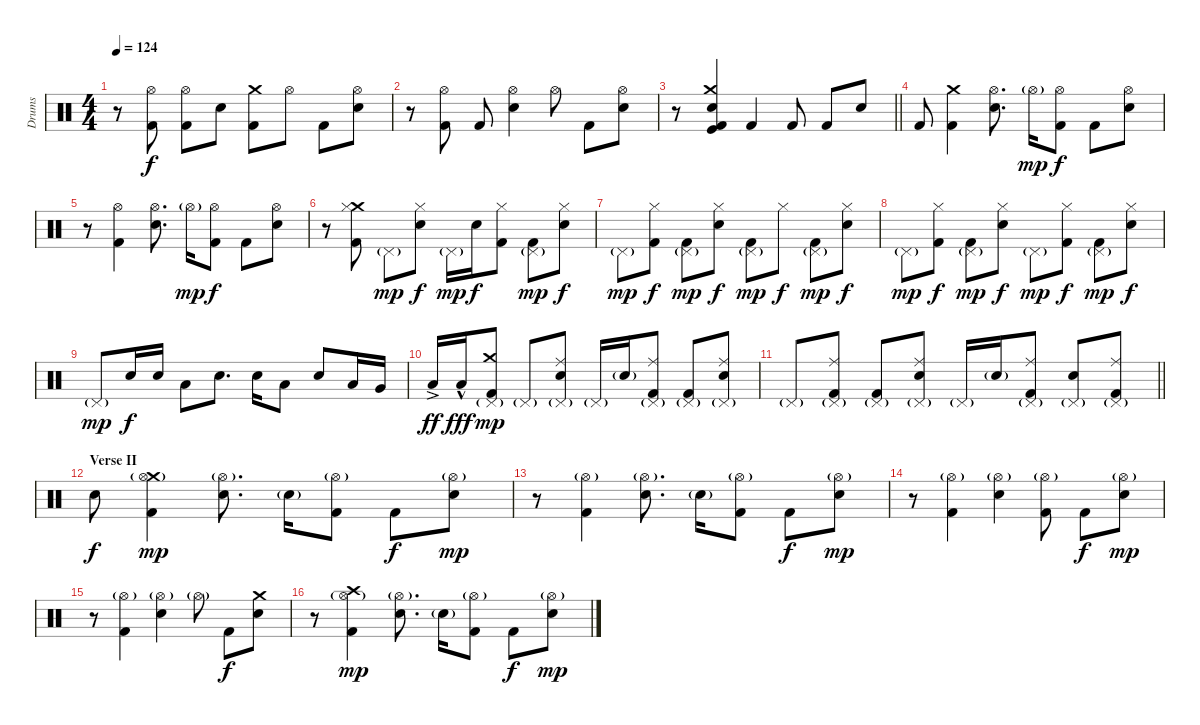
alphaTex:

\track ("Drums" "Drums") {instrument percussion}
\staff {score}
\articulation defaults
\ts (4 4)
\tempo 124
\clef neutral
\ks c
r.8{dy f} ("Hi-Hat (open)" "Kick (hit) 2").8 ("Hi-Hat (open)" "Kick (hit) 2").8 "Electric Snare (hit)".8 ("Crash medium (hit)" "Kick (hit) 2").8 "Hi-Hat (open)".8 "Kick (hit) 2".8 ("Electric Snare (hit)" "Hi-Hat (open)").8 |
r.8 ("Hi-Hat (open)" "Kick (hit) 2").8 "Kick (hit) 2".8 ("Electric Snare (hit)" "Hi-Hat (open)").4 "Hi-Hat (open)".8 "Kick (hit) 2".8 ("Electric Snare (hit)" "Hi-Hat (open)").8 |
\barLineRight lightlight
r.8 ("Kick (hit)" "Crash medium (hit)" "Kick (hit) 2" "Electric Snare (hit)").4 "Kick (hit) 2".4 "Kick (hit) 2".8 "Kick (hit) 2".8 "Electric Snare (hit)".8 |
"Kick (hit) 2".8 ("Crash medium (hit)" "Kick (hit) 2").4 ("Electric Snare (hit)" "Hi-Hat (open)").8{d} "Hi-Hat (open)"{g}.16{dy mp} ("Kick (hit) 2" "Hi-Hat (open)").8{dy f} "Kick (hit) 2".8 ("Electric Snare (hit)" "Hi-Hat (open)").8 |
r.8 ("Kick (hit) 2" "Hi-Hat (open)").4 ("Electric Snare (hit)" "Hi-Hat (open)").8{d} "Hi-Hat (open)"{g}.16{dy mp} ("Kick (hit) 2" "Hi-Hat (open)").8{dy f} "Kick (hit) 2".8 ("Electric Snare (hit)" "Hi-Hat (open)").8 |
r.8 ("Crash medium (hit)" "Kick (hit) 2" "Hi-Hat (closed)").8 "Pedal Hi-Hat (hit)"{g}.8{dy mp} ("Electric Snare (hit)" "Hi-Hat (closed)").8{dy f} "Pedal Hi-Hat (hit)"{g}.16{dy mp} "Electric Snare (hit)".16{dy f} ("Kick (hit) 2" "Hi-Hat (closed)").8 ("Kick (hit) 2" "Pedal Hi-Hat (hit)"{g}).8{dy mp} ("Electric Snare (hit)" "Hi-Hat (closed)").8{dy f} |
"Pedal Hi-Hat (hit)"{g}.8{dy mp} ("Kick (hit) 2" "Hi-Hat (closed)").8{dy f} ("Kick (hit) 2" "Pedal Hi-Hat (hit)"{g}).8{dy mp} ("Electric Snare (hit)" "Hi-Hat (closed)").8{dy f} ("Kick (hit) 2" "Pedal Hi-Hat (hit)"{g}).8{dy mp} "Hi-Hat (closed)".8{dy f} ("Kick (hit) 2" "Pedal Hi-Hat (hit)"{g}).8{dy mp} ("Electric Snare (hit)" "Hi-Hat (closed)").8{dy f} |
"Pedal Hi-Hat (hit)"{g}.8{dy mp} ("Kick (hit) 2" "Hi-Hat (closed)").8{dy f} ("Kick (hit) 2" "Pedal Hi-Hat (hit)"{g}).8{dy mp} ("Electric Snare (hit)" "Hi-Hat (closed)").8{dy f} "Pedal Hi-Hat (hit)"{g}.8{dy mp} ("Kick (hit) 2" "Hi-Hat (closed)").8{dy f} ("Kick (hit) 2" "Pedal Hi-Hat (hit)"{g}).8{dy mp} ("Electric Snare (hit)" "Hi-Hat (closed)").8{dy f} |
"Pedal Hi-Hat (hit)"{g}.8{dy mp} "Electric Snare (hit)".16{dy f} "Electric Snare (hit)".16 "Low Tom (hit)".8 "Electric Snare (hit)".8{d} "Electric Snare (hit)".16 "Low Tom (hit)".8 "Electric Snare (hit)".8 "Low Tom (hit)".16 "Very Low Tom (hit)".16 |
"Low Floor Tom (hit)"{ac}.16{dy ff} "Low Floor Tom (hit)"{hac}.16{dy fff} ("Crash medium (hit)" "Kick (hit) 2" "Pedal Hi-Hat (hit)"{g}).8{dy mp} "Pedal Hi-Hat (hit)"{g}.8 ("Ride (middle)" "Electric Snare (hit)" "Pedal Hi-Hat (hit)"{g}).8 "Pedal Hi-Hat (hit)"{g}.16 "Electric Snare (hit)"{g}.16 ("Ride (middle)" "Kick (hit) 2" "Pedal Hi-Hat (hit)"{g}).8 ("Kick (hit) 2" "Pedal Hi-Hat (hit)"{g}).8 ("Ride (middle)" "Electric Snare (hit)" "Pedal Hi-Hat (hit)"{g}).8 |
\barLineRight lightlight "Pedal Hi-Hat (hit)"{g}.8
("Ride (middle)" "Kick (hit) 2" "Pedal Hi-Hat (hit)"{g}).8 ("Kick (hit) 2" "Pedal Hi-Hat (hit)"{g}).8 ("Ride (middle)" "Electric Snare (hit)" "Pedal Hi-Hat (hit)"{g}).8 "Pedal Hi-Hat (hit)"{g}.16 "Electric Snare (hit)"{g}.16 ("Ride (middle)" "Kick (hit) 2" "Pedal Hi-Hat (hit)"{g}).8 ("Electric Snare (hit)" "Pedal Hi-Hat (hit)"{g}).8 ("Ride (middle)" "Kick (hit) 2" "Pedal Hi-Hat (hit)"{g}).8 |
\section ("" "Verse II")
"Electric Snare (hit)".8{dy f} ("Crash medium (hit)" "Kick (hit) 2" "Hi-Hat (open)"{g}).4{dy mp} ("Electric Snare (hit)" "Hi-Hat (open)"{g}).8{d} "Electric Snare (hit)"{g}.16 ("Kick (hit) 2" "Hi-Hat (open)"{g}).8 "Kick (hit) 2".8{dy f} ("Electric Snare (hit)" "Hi-Hat (open)"{g}).8{dy mp} |
r.8 ("Kick (hit) 2" "Hi-Hat (open)"{g}).4 ("Electric Snare (hit)" "Hi-Hat (open)"{g}).8{d} "Electric Snare (hit)"{g}.16 ("Kick (hit) 2" "Hi-Hat (open)"{g}).8 "Kick (hit) 2".8{dy f} ("Electric Snare (hit)" "Hi-Hat (open)"{g}).8{dy mp} |
r.8 ("Kick (hit) 2" "Hi-Hat (open)"{g}).4 ("Electric Snare (hit)" "Hi-Hat (open)"{g}).4 ("Kick (hit) 2" "Hi-Hat (open)"{g}).8 "Kick (hit) 2".8{dy f} ("Electric Snare (hit)" "Hi-Hat (open)"{g}).8{dy mp} |
r.8 ("Kick (hit) 2" "Hi-Hat (open)"{g}).4 ("Electric Snare (hit)" "Hi-Hat (open)"{g}).4 "Hi-Hat (open)"{g}.8 "Kick (hit) 2".8{dy f} ("Crash medium (hit)" "Electric Snare (hit)").8 |
r.8 ("Crash high (hit)" "Kick (hit) 2" "Hi-Hat (open)"{g}).4{dy mp} ("Electric Snare (hit)" "Hi-Hat (open)"{g}).8{d} "Electric Snare (hit)"{g}.16 ("Kick (hit) 2" "Hi-Hat (open)"{g}).8 "Kick (hit) 2".8{dy f} ("Electric Snare (hit)" "Hi-Hat (open)"{g}).8{dy mp}
